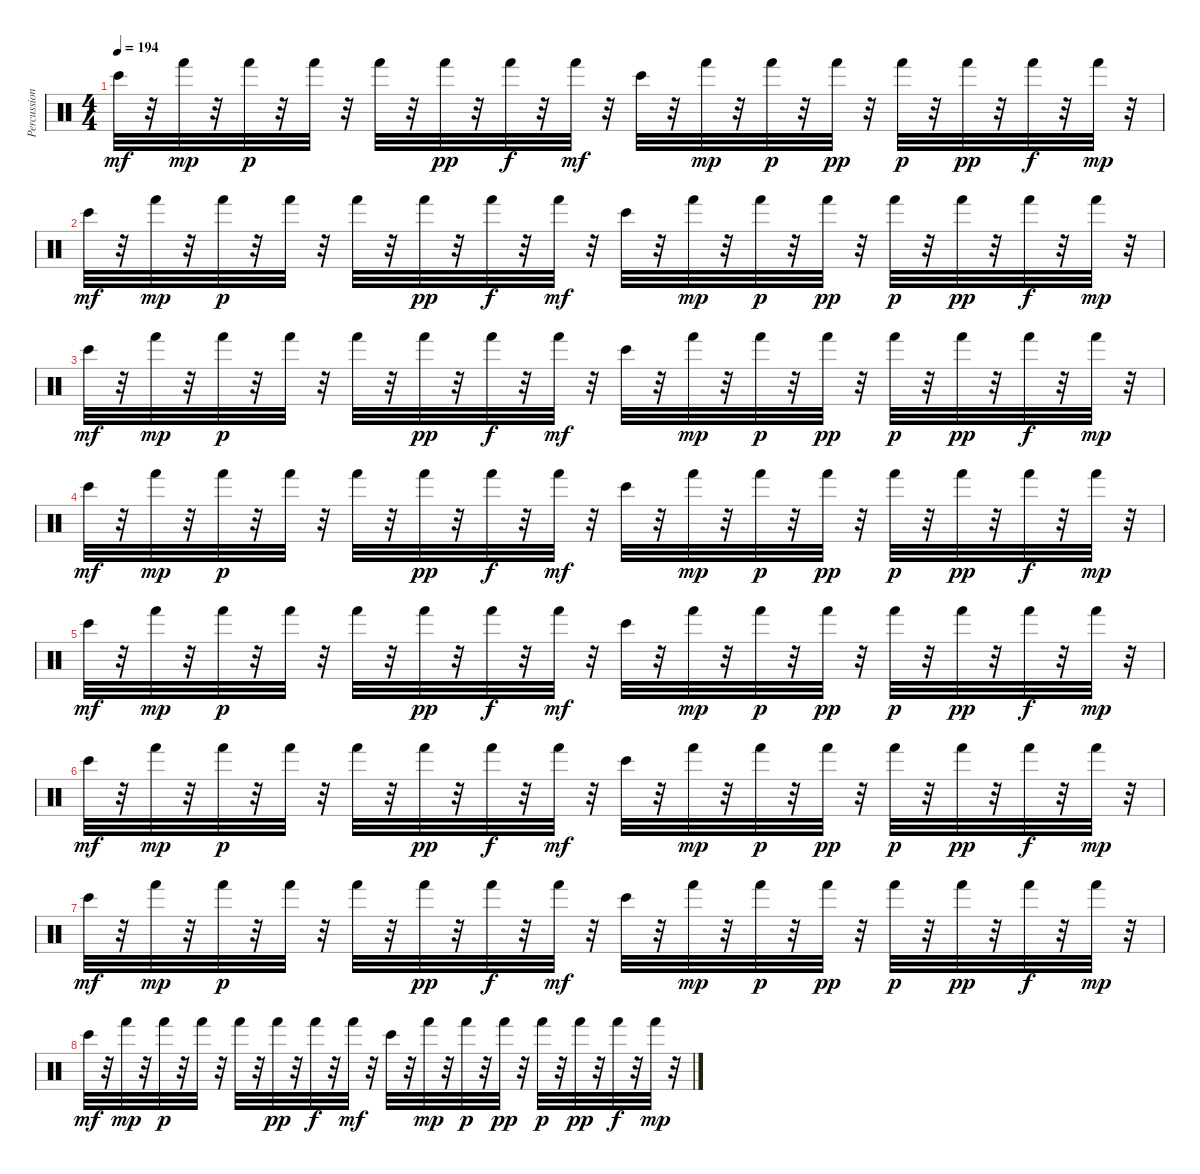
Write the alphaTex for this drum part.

\track ("Percussions" "Percussion") {instrument percussion}
\staff {score}
\articulation defaults
\ts (4 4)
\tempo 194
\clef neutral
\ks c "Bongo High (hit)".32{dy mf}
r.32 "Hand (hit)".32{dy mp} r.32 "Hand (hit)".32{dy p} r.32 "Hand (hit)".32 r.32 "Hand (hit)".32 r.32 "Hand (hit)".32{dy pp} r.32 "Hand (hit)".32{dy f} r.32 "Hand (hit)".32{dy mf} r.32 "Bongo High (hit)".32 r.32 "Hand (hit)".32{dy mp} r.32 "Hand (hit)".32{dy p} r.32 "Hand (hit)".32{dy pp} r.32 "Hand (hit)".32{dy p} r.32 "Hand (hit)".32{dy pp} r.32 "Hand (hit)".32{dy f} r.32 "Hand (hit)".32{dy mp} r.32 |
"Bongo High (hit)".32{dy mf} r.32 "Hand (hit)".32{dy mp} r.32 "Hand (hit)".32{dy p} r.32 "Hand (hit)".32 r.32 "Hand (hit)".32 r.32 "Hand (hit)".32{dy pp} r.32 "Hand (hit)".32{dy f} r.32 "Hand (hit)".32{dy mf} r.32 "Bongo High (hit)".32 r.32 "Hand (hit)".32{dy mp} r.32 "Hand (hit)".32{dy p} r.32 "Hand (hit)".32{dy pp} r.32 "Hand (hit)".32{dy p} r.32 "Hand (hit)".32{dy pp} r.32 "Hand (hit)".32{dy f} r.32 "Hand (hit)".32{dy mp} r.32 |
"Bongo High (hit)".32{dy mf} r.32 "Hand (hit)".32{dy mp} r.32 "Hand (hit)".32{dy p} r.32 "Hand (hit)".32 r.32 "Hand (hit)".32 r.32 "Hand (hit)".32{dy pp} r.32 "Hand (hit)".32{dy f} r.32 "Hand (hit)".32{dy mf} r.32 "Bongo High (hit)".32 r.32 "Hand (hit)".32{dy mp} r.32 "Hand (hit)".32{dy p} r.32 "Hand (hit)".32{dy pp} r.32 "Hand (hit)".32{dy p} r.32 "Hand (hit)".32{dy pp} r.32 "Hand (hit)".32{dy f} r.32 "Hand (hit)".32{dy mp} r.32 |
"Bongo High (hit)".32{dy mf} r.32 "Hand (hit)".32{dy mp} r.32 "Hand (hit)".32{dy p} r.32 "Hand (hit)".32 r.32 "Hand (hit)".32 r.32 "Hand (hit)".32{dy pp} r.32 "Hand (hit)".32{dy f} r.32 "Hand (hit)".32{dy mf} r.32 "Bongo High (hit)".32 r.32 "Hand (hit)".32{dy mp} r.32 "Hand (hit)".32{dy p} r.32 "Hand (hit)".32{dy pp} r.32 "Hand (hit)".32{dy p} r.32 "Hand (hit)".32{dy pp} r.32 "Hand (hit)".32{dy f} r.32 "Hand (hit)".32{dy mp} r.32 |
"Bongo High (hit)".32{dy mf} r.32 "Hand (hit)".32{dy mp} r.32 "Hand (hit)".32{dy p} r.32 "Hand (hit)".32 r.32 "Hand (hit)".32 r.32 "Hand (hit)".32{dy pp} r.32 "Hand (hit)".32{dy f} r.32 "Hand (hit)".32{dy mf} r.32 "Bongo High (hit)".32 r.32 "Hand (hit)".32{dy mp} r.32 "Hand (hit)".32{dy p} r.32 "Hand (hit)".32{dy pp} r.32 "Hand (hit)".32{dy p} r.32 "Hand (hit)".32{dy pp} r.32 "Hand (hit)".32{dy f} r.32 "Hand (hit)".32{dy mp} r.32 |
"Bongo High (hit)".32{dy mf} r.32 "Hand (hit)".32{dy mp} r.32 "Hand (hit)".32{dy p} r.32 "Hand (hit)".32 r.32 "Hand (hit)".32 r.32 "Hand (hit)".32{dy pp} r.32 "Hand (hit)".32{dy f} r.32 "Hand (hit)".32{dy mf} r.32 "Bongo High (hit)".32 r.32 "Hand (hit)".32{dy mp} r.32 "Hand (hit)".32{dy p} r.32 "Hand (hit)".32{dy pp} r.32 "Hand (hit)".32{dy p} r.32 "Hand (hit)".32{dy pp} r.32 "Hand (hit)".32{dy f} r.32 "Hand (hit)".32{dy mp} r.32 |
"Bongo High (hit)".32{dy mf} r.32 "Hand (hit)".32{dy mp} r.32 "Hand (hit)".32{dy p} r.32 "Hand (hit)".32 r.32 "Hand (hit)".32 r.32 "Hand (hit)".32{dy pp} r.32 "Hand (hit)".32{dy f} r.32 "Hand (hit)".32{dy mf} r.32 "Bongo High (hit)".32 r.32 "Hand (hit)".32{dy mp} r.32 "Hand (hit)".32{dy p} r.32 "Hand (hit)".32{dy pp} r.32 "Hand (hit)".32{dy p} r.32 "Hand (hit)".32{dy pp} r.32 "Hand (hit)".32{dy f} r.32 "Hand (hit)".32{dy mp} r.32 |
"Bongo High (hit)".32{dy mf} r.32 "Hand (hit)".32{dy mp} r.32 "Hand (hit)".32{dy p} r.32 "Hand (hit)".32 r.32 "Hand (hit)".32 r.32 "Hand (hit)".32{dy pp} r.32 "Hand (hit)".32{dy f} r.32 "Hand (hit)".32{dy mf} r.32 "Bongo High (hit)".32 r.32 "Hand (hit)".32{dy mp} r.32 "Hand (hit)".32{dy p} r.32 "Hand (hit)".32{dy pp} r.32 "Hand (hit)".32{dy p} r.32 "Hand (hit)".32{dy pp} r.32 "Hand (hit)".32{dy f} r.32 "Hand (hit)".32{dy mp} r.32
